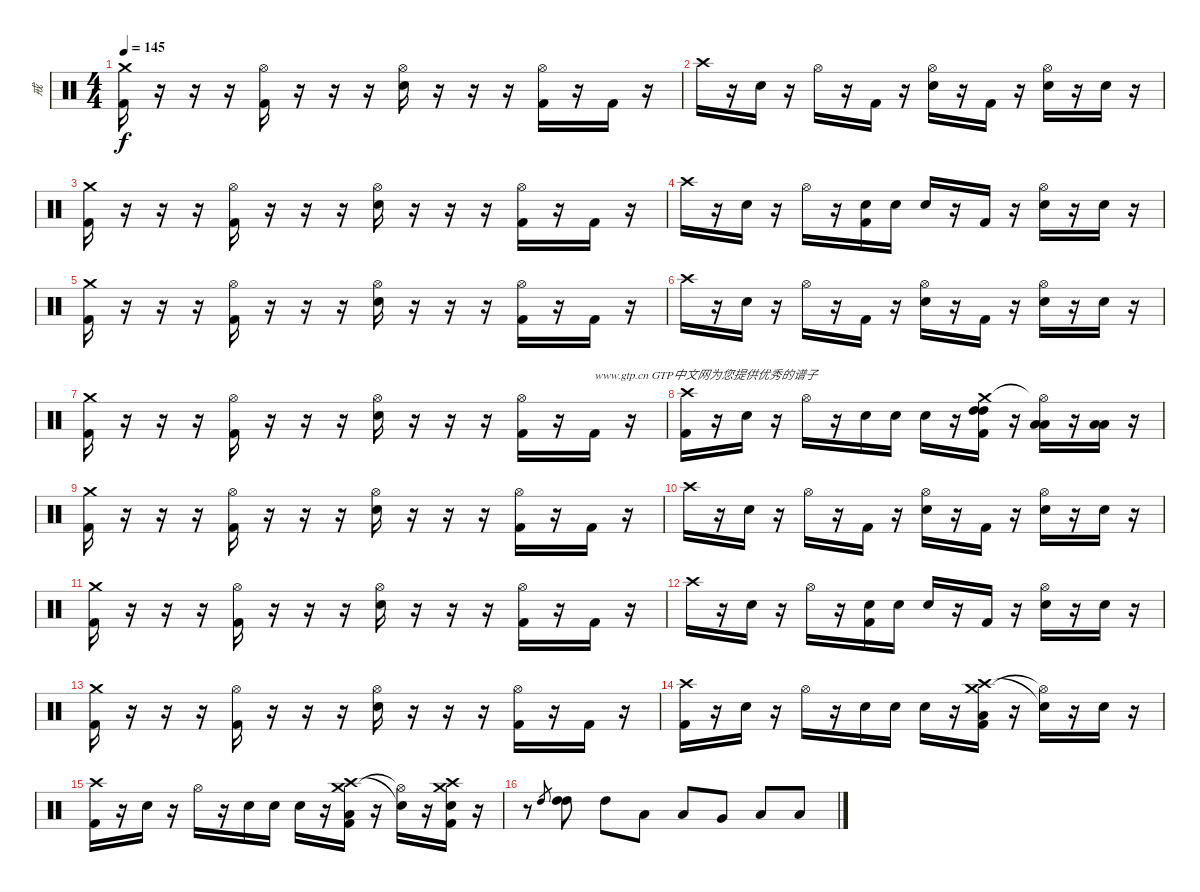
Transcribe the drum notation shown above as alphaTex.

\track ("戒" "戒") {instrument percussion}
\staff {score}
\articulation defaults
\ts (4 4)
\tempo 145
\clef neutral
\ks c
("Crash medium (hit)" "Kick (hit) 2").16{dy f} r.16 r.16 r.16 ("Hi-Hat (open)" "Kick (hit) 2").16 r.16 r.16 r.16 ("Hi-Hat (open)" "Electric Snare (hit)").16 r.16 r.16 r.16 ("Hi-Hat (open)" "Kick (hit) 2").16 r.16 "Kick (hit) 2".16 r.16 |
"Crash high (hit)".16 r.16 "Electric Snare (hit)".16 r.16 "Hi-Hat (open)".16 r.16 "Kick (hit) 2".16 r.16 ("Hi-Hat (open)" "Electric Snare (hit)").16 r.16 "Kick (hit) 2".16 r.16 ("Hi-Hat (open)" "Electric Snare (hit)").16 r.16 "Electric Snare (hit)".16 r.16 |
("Crash medium (hit)" "Kick (hit) 2").16 r.16 r.16 r.16 ("Hi-Hat (open)" "Kick (hit) 2").16 r.16 r.16 r.16 ("Hi-Hat (open)" "Electric Snare (hit)").16 r.16 r.16 r.16 ("Hi-Hat (open)" "Kick (hit) 2").16 r.16 "Kick (hit) 2".16 r.16 |
"Crash high (hit)".16 r.16 "Electric Snare (hit)".16 r.16 "Hi-Hat (open)".16 r.16 ("Electric Snare (hit)" "Kick (hit) 2").16 "Electric Snare (hit)".16 "Electric Snare (hit)".16 r.16 "Kick (hit) 2".16 r.16 ("Hi-Hat (open)" "Electric Snare (hit)").16 r.16 "Electric Snare (hit)".16 r.16 |
("Crash medium (hit)" "Kick (hit) 2").16 r.16 r.16 r.16 ("Hi-Hat (open)" "Kick (hit) 2").16 r.16 r.16 r.16 ("Hi-Hat (open)" "Electric Snare (hit)").16 r.16 r.16 r.16 ("Hi-Hat (open)" "Kick (hit) 2").16 r.16 "Kick (hit) 2".16 r.16 |
"Crash high (hit)".16 r.16 "Electric Snare (hit)".16 r.16 "Hi-Hat (open)".16 r.16 "Kick (hit) 2".16 r.16 ("Hi-Hat (open)" "Electric Snare (hit)").16 r.16 "Kick (hit) 2".16 r.16 ("Hi-Hat (open)" "Electric Snare (hit)").16 r.16 "Electric Snare (hit)".16 r.16 |
("Crash medium (hit)" "Kick (hit) 2").16 r.16 r.16 r.16 ("Hi-Hat (open)" "Kick (hit) 2").16 r.16 r.16 r.16 ("Hi-Hat (open)" "Electric Snare (hit)").16 r.16 r.16 r.16 ("Hi-Hat (open)" "Kick (hit) 2").16 r.16 "Kick (hit) 2".16{txt "www.gtp.cn GTP中文网为您提供优秀的谱子"} r.16 |
("Crash high (hit)" "Kick (hit) 2").16 r.16 "Electric Snare (hit)".16 r.16 "Hi-Hat (open)".16 r.16 "Electric Snare (hit)".16 "Electric Snare (hit)".16 "Electric Snare (hit)".16 r.16 ("Crash medium (hit)" "High Tom (hit)" "High Tom (hit)" "Kick (hit) 2").16 r.16 ("Hi-Hat (open)"{t} "Low Tom (hit)" "Low Tom (hit)").16 r.16 ("Low Floor Tom (hit)" "Low Floor Tom (hit)").16 r.16 |
("Crash medium (hit)" "Kick (hit) 2").16 r.16 r.16 r.16 ("Hi-Hat (open)" "Kick (hit) 2").16 r.16 r.16 r.16 ("Hi-Hat (open)" "Electric Snare (hit)").16 r.16 r.16 r.16 ("Hi-Hat (open)" "Kick (hit) 2").16 r.16 "Kick (hit) 2".16 r.16 |
"Crash high (hit)".16 r.16 "Electric Snare (hit)".16 r.16 "Hi-Hat (open)".16 r.16 "Kick (hit) 2".16 r.16 ("Hi-Hat (open)" "Electric Snare (hit)").16 r.16 "Kick (hit) 2".16 r.16 ("Hi-Hat (open)" "Electric Snare (hit)").16 r.16 "Electric Snare (hit)".16 r.16 |
("Crash medium (hit)" "Kick (hit) 2").16 r.16 r.16 r.16 ("Hi-Hat (open)" "Kick (hit) 2").16 r.16 r.16 r.16 ("Hi-Hat (open)" "Electric Snare (hit)").16 r.16 r.16 r.16 ("Hi-Hat (open)" "Kick (hit) 2").16 r.16 "Kick (hit) 2".16 r.16 |
"Crash high (hit)".16 r.16 "Electric Snare (hit)".16 r.16 "Hi-Hat (open)".16 r.16 ("Electric Snare (hit)" "Kick (hit) 2").16 "Electric Snare (hit)".16 "Electric Snare (hit)".16 r.16 "Kick (hit) 2".16 r.16 ("Hi-Hat (open)" "Electric Snare (hit)").16 r.16 "Electric Snare (hit)".16 r.16 |
("Crash medium (hit)" "Kick (hit) 2").16 r.16 r.16 r.16 ("Hi-Hat (open)" "Kick (hit) 2").16 r.16 r.16 r.16 ("Hi-Hat (open)" "Electric Snare (hit)").16 r.16 r.16 r.16 ("Hi-Hat (open)" "Kick (hit) 2").16 r.16 "Kick (hit) 2".16 r.16 |
("Crash high (hit)" "Kick (hit) 2").16 r.16 "Electric Snare (hit)".16 r.16 "Hi-Hat (open)".16 r.16 "Electric Snare (hit)".16 "Electric Snare (hit)".16 "Electric Snare (hit)".16 r.16 ("Crash medium (hit)" "Crash high (hit)" "Low Tom (hit)" "Kick (hit) 2").16 r.16 ("Hi-Hat (open)"{t} "Electric Snare (hit)"{t}).16 r.16 "Electric Snare (hit)".16 r.16 |
("Crash high (hit)" "Kick (hit) 2").16 r.16 "Electric Snare (hit)".16 r.16 "Hi-Hat (open)".16 r.16 "Electric Snare (hit)".16 "Electric Snare (hit)".16 "Electric Snare (hit)".16 r.16 ("Crash medium (hit)" "Crash high (hit)" "Low Tom (hit)" "Kick (hit) 2").16 r.16 ("Hi-Hat (open)"{t} "Electric Snare (hit)"{t}).16 r.16 ("Crash medium (hit)" "Crash high (hit)" "Electric Snare (hit)" "Kick (hit) 2").16 r.16 |
r.8 "High Tom (hit)".8{gr} ("High Tom (hit)" "High Tom (hit)").8 "High Tom (hit)".8 "Low Tom (hit)".8 "Low Tom (hit)".8 "Very Low Tom (hit)".8 "Low Floor Tom (hit)".8 "Low Floor Tom (hit)".8
